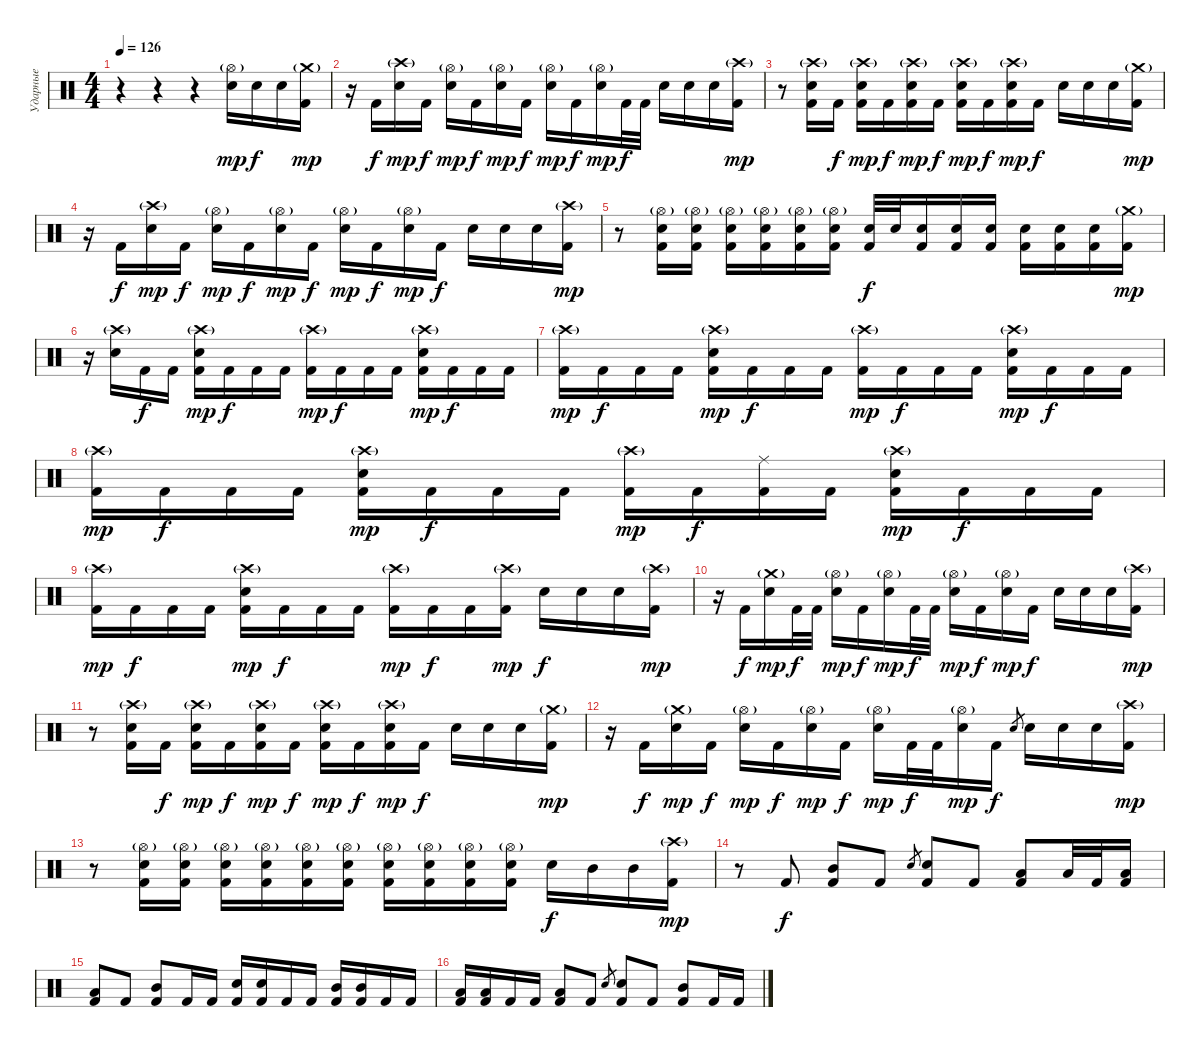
\track ("Ударные" "Ударные") {instrument percussion}
\staff {score}
\articulation defaults
\ts (4 4)
\tempo 126
\clef neutral
\ks c
r.4{dy mp} r.4 r.4 ("Hi-Hat (open)"{g} "Electric Snare (hit)").16 "Electric Snare (hit)".16{dy f} "Electric Snare (hit)".16 ("Crash medium (hit)"{g} "Kick (hit) 2").16{dy mp} |
r.16 "Kick (hit) 2".16{dy f} ("Crash high (hit)"{g} "Electric Snare (hit)").16{dy mp} "Kick (hit) 2".16{dy f} ("Hi-Hat (open)"{g} "Electric Snare (hit)").16{dy mp} "Kick (hit) 2".16{dy f} ("Hi-Hat (open)"{g} "Electric Snare (hit)").16{dy mp} "Kick (hit) 2".16{dy f} ("Hi-Hat (open)"{g} "Electric Snare (hit)").16{dy mp} "Kick (hit) 2".16{dy f} ("Hi-Hat (open)"{g} "Electric Snare (hit)").16{dy mp} "Kick (hit) 2".32{dy f} "Kick (hit) 2".32 "Electric Snare (hit)".16 "Electric Snare (hit)".16 "Electric Snare (hit)".16 ("Crash high (hit)"{g} "Kick (hit) 2").16{dy mp} |
r.8 ("Crash high (hit)"{g} "Electric Snare (hit)" "Kick (hit) 2").16 "Kick (hit) 2".16{dy f} ("Crash high (hit)"{g} "Electric Snare (hit)" "Kick (hit) 2").16{dy mp} "Kick (hit) 2".16{dy f} ("Crash high (hit)"{g} "Electric Snare (hit)" "Kick (hit) 2").16{dy mp} "Kick (hit) 2".16{dy f} ("Crash high (hit)"{g} "Electric Snare (hit)" "Kick (hit) 2").16{dy mp} "Kick (hit) 2".16{dy f} ("Crash high (hit)"{g} "Electric Snare (hit)" "Kick (hit) 2").16{dy mp} "Kick (hit) 2".16{dy f} "Electric Snare (hit)".16 "Electric Snare (hit)".16 "Electric Snare (hit)".16 ("Crash medium (hit)"{g} "Kick (hit) 2").16{dy mp} |
r.16 "Kick (hit) 2".16{dy f} ("Crash high (hit)"{g} "Electric Snare (hit)").16{dy mp} "Kick (hit) 2".16{dy f} ("Hi-Hat (open)"{g} "Electric Snare (hit)").16{dy mp} "Kick (hit) 2".16{dy f} ("Hi-Hat (open)"{g} "Electric Snare (hit)").16{dy mp} "Kick (hit) 2".16{dy f} ("Hi-Hat (open)"{g} "Electric Snare (hit)").16{dy mp} "Kick (hit) 2".16{dy f} ("Hi-Hat (open)"{g} "Electric Snare (hit)").16{dy mp} "Kick (hit) 2".16{dy f} "Electric Snare (hit)".16 "Electric Snare (hit)".16 "Electric Snare (hit)".16 ("Crash high (hit)"{g} "Kick (hit) 2").16{dy mp} |
r.8 ("Hi-Hat (open)"{g} "Electric Snare (hit)" "Kick (hit) 2").16 ("Hi-Hat (open)"{g} "Electric Snare (hit)" "Kick (hit) 2").16 ("Hi-Hat (open)"{g} "Electric Snare (hit)" "Kick (hit) 2").16 ("Hi-Hat (open)"{g} "Electric Snare (hit)" "Kick (hit) 2").16 ("Hi-Hat (open)"{g} "Electric Snare (hit)" "Kick (hit) 2").16 ("Hi-Hat (open)"{g} "Electric Snare (hit)" "Kick (hit) 2").16 ("Electric Snare (hit)" "Kick (hit) 2").32{dy f} "Electric Snare (hit)".32 ("Electric Snare (hit)" "Kick (hit) 2").16 ("Electric Snare (hit)" "Kick (hit) 2").16 ("Electric Snare (hit)" "Kick (hit) 2").16 ("Electric Snare (hit)" "Kick (hit) 2").16 ("Electric Snare (hit)" "Kick (hit) 2").16 ("Electric Snare (hit)" "Kick (hit) 2").16 ("Crash medium (hit)"{g} "Kick (hit) 2").16{dy mp} |
r.16 ("Crash high (hit)"{g} "Electric Snare (hit)").16 "Kick (hit) 2".16{dy f} "Kick (hit) 2".16 ("Crash high (hit)"{g} "Electric Snare (hit)" "Kick (hit) 2").16{dy mp} "Kick (hit) 2".16{dy f} "Kick (hit) 2".16 "Kick (hit) 2".16 ("Crash high (hit)"{g} "Kick (hit) 2").16{dy mp} "Kick (hit) 2".16{dy f} "Kick (hit) 2".16 "Kick (hit) 2".16 ("Crash high (hit)"{g} "Electric Snare (hit)" "Kick (hit) 2").16{dy mp} "Kick (hit) 2".16{dy f} "Kick (hit) 2".16 "Kick (hit) 2".16 |
("Crash high (hit)"{g} "Kick (hit) 2").16{dy mp} "Kick (hit) 2".16{dy f} "Kick (hit) 2".16 "Kick (hit) 2".16 ("Crash high (hit)"{g} "Electric Snare (hit)" "Kick (hit) 2").16{dy mp} "Kick (hit) 2".16{dy f} "Kick (hit) 2".16 "Kick (hit) 2".16 ("Crash high (hit)"{g} "Kick (hit) 2").16{dy mp} "Kick (hit) 2".16{dy f} "Kick (hit) 2".16 "Kick (hit) 2".16 ("Crash high (hit)"{g} "Electric Snare (hit)" "Kick (hit) 2").16{dy mp} "Kick (hit) 2".16{dy f} "Kick (hit) 2".16 "Kick (hit) 2".16 |
("Crash high (hit)"{g} "Kick (hit) 2").16{dy mp} "Kick (hit) 2".16{dy f} "Kick (hit) 2".16 "Kick (hit) 2".16 ("Crash high (hit)"{g} "Electric Snare (hit)" "Kick (hit) 2").16{dy mp} "Kick (hit) 2".16{dy f} "Kick (hit) 2".16 "Kick (hit) 2".16 ("Crash high (hit)"{g} "Kick (hit) 2").16{dy mp} "Kick (hit) 2".16{dy f} ("Ride (middle)" "Kick (hit) 2").16 "Kick (hit) 2".16 ("Crash high (hit)"{g} "Electric Snare (hit)" "Kick (hit) 2").16{dy mp} "Kick (hit) 2".16{dy f} "Kick (hit) 2".16 "Kick (hit) 2".16 |
("Crash high (hit)"{g} "Kick (hit) 2").16{dy mp} "Kick (hit) 2".16{dy f} "Kick (hit) 2".16 "Kick (hit) 2".16 ("Crash high (hit)"{g} "Electric Snare (hit)" "Kick (hit) 2").16{dy mp} "Kick (hit) 2".16{dy f} "Kick (hit) 2".16 "Kick (hit) 2".16 ("Crash high (hit)"{g} "Kick (hit) 2").16{dy mp} "Kick (hit) 2".16{dy f} "Kick (hit) 2".16 ("Crash high (hit)"{g} "Kick (hit) 2").16{dy mp} "Electric Snare (hit)".16{dy f} "Electric Snare (hit)".16 "Electric Snare (hit)".16 ("Crash high (hit)"{g} "Kick (hit) 2").16{dy mp} |
r.16 "Kick (hit) 2".16{dy f} ("Crash medium (hit)"{g} "Electric Snare (hit)").16{dy mp} "Kick (hit) 2".32{dy f} "Kick (hit) 2".32 ("Hi-Hat (open)"{g} "Electric Snare (hit)").16{dy mp} "Kick (hit) 2".16{dy f} ("Hi-Hat (open)"{g} "Electric Snare (hit)").16{dy mp} "Kick (hit) 2".32{dy f} "Kick (hit) 2".32 ("Hi-Hat (open)"{g} "Electric Snare (hit)").16{dy mp} "Kick (hit) 2".16{dy f} ("Hi-Hat (open)"{g} "Electric Snare (hit)").16{dy mp} "Kick (hit) 2".16{dy f} "Electric Snare (hit)".16 "Electric Snare (hit)".16 "Electric Snare (hit)".16 ("Crash high (hit)"{g} "Kick (hit) 2").16{dy mp} |
r.8 ("Crash high (hit)"{g} "Electric Snare (hit)" "Kick (hit) 2").16 "Kick (hit) 2".16{dy f} ("Crash high (hit)"{g} "Electric Snare (hit)" "Kick (hit) 2").16{dy mp} "Kick (hit) 2".16{dy f} ("Crash high (hit)"{g} "Electric Snare (hit)" "Kick (hit) 2").16{dy mp} "Kick (hit) 2".16{dy f} ("Crash high (hit)"{g} "Electric Snare (hit)" "Kick (hit) 2").16{dy mp} "Kick (hit) 2".16{dy f} ("Crash high (hit)"{g} "Electric Snare (hit)" "Kick (hit) 2").16{dy mp} "Kick (hit) 2".16{dy f} "Electric Snare (hit)".16 "Electric Snare (hit)".16 "Electric Snare (hit)".16 ("Crash medium (hit)"{g} "Kick (hit) 2").16{dy mp} |
r.16 "Kick (hit) 2".16{dy f} ("Crash medium (hit)"{g} "Electric Snare (hit)").16{dy mp} "Kick (hit) 2".16{dy f} ("Hi-Hat (open)"{g} "Electric Snare (hit)").16{dy mp} "Kick (hit) 2".16{dy f} ("Hi-Hat (open)"{g} "Electric Snare (hit)").16{dy mp} "Kick (hit) 2".16{dy f} ("Hi-Hat (open)"{g} "Electric Snare (hit)").16{dy mp} "Kick (hit) 2".32{dy f} "Kick (hit) 2".32 ("Hi-Hat (open)"{g} "Electric Snare (hit)").16{dy mp} "Kick (hit) 2".16{dy f} "Electric Snare (hit)".8{gr} "Electric Snare (hit)".16 "Electric Snare (hit)".16 "Electric Snare (hit)".16 ("Crash high (hit)"{g} "Kick (hit) 2").16{dy mp} |
r.8 ("Hi-Hat (open)"{g} "Electric Snare (hit)" "Kick (hit) 2").16 ("Hi-Hat (open)"{g} "Electric Snare (hit)" "Kick (hit) 2").16 ("Hi-Hat (open)"{g} "Electric Snare (hit)" "Kick (hit) 2").16 ("Hi-Hat (open)"{g} "Electric Snare (hit)" "Kick (hit) 2").16 ("Hi-Hat (open)"{g} "Electric Snare (hit)" "Kick (hit) 2").16 ("Hi-Hat (open)"{g} "Electric Snare (hit)" "Kick (hit) 2").16 ("Hi-Hat (open)"{g} "Electric Snare (hit)" "Kick (hit) 2").16 ("Hi-Hat (open)"{g} "Electric Snare (hit)" "Kick (hit) 2").16 ("Hi-Hat (open)"{g} "Electric Snare (hit)" "Kick (hit) 2").16 ("Hi-Hat (open)"{g} "Electric Snare (hit)" "Kick (hit) 2").16 "Electric Snare (hit)".16{dy f} "Mid Tom (hit)".16 "Mid Tom (hit)".16 ("Crash high (hit)"{g} "Kick (hit) 2").16{dy mp} |
r.8 "Kick (hit) 2".8{dy f} ("Mid Tom (hit)" "Kick (hit) 2").8 "Kick (hit) 2".8 "Electric Snare (hit)".8{gr} ("Electric Snare (hit)" "Kick (hit) 2").8 "Kick (hit) 2".8 ("Low Tom (hit)" "Kick (hit) 2").8 "Low Tom (hit)".32 "Kick (hit) 2".32 ("Low Tom (hit)" "Kick (hit) 2").16 |
("Low Tom (hit)" "Kick (hit) 2").8 "Kick (hit) 2".8 ("Mid Tom (hit)" "Kick (hit) 2").8 "Kick (hit) 2".16 "Kick (hit) 2".16 ("Electric Snare (hit)" "Kick (hit) 2").16 ("Electric Snare (hit)" "Kick (hit) 2").16 "Kick (hit) 2".16 "Kick (hit) 2".16 ("Mid Tom (hit)" "Kick (hit) 2").16 ("Mid Tom (hit)" "Kick (hit) 2").16 "Kick (hit) 2".16 "Kick (hit) 2".16 |
("Low Tom (hit)" "Kick (hit) 2").16 ("Low Tom (hit)" "Kick (hit) 2").16 "Kick (hit) 2".16 "Kick (hit) 2".16 ("Low Tom (hit)" "Kick (hit) 2").8 "Kick (hit) 2".8 "Electric Snare (hit)".8{gr} ("Electric Snare (hit)" "Kick (hit) 2").8 "Kick (hit) 2".8 ("Mid Tom (hit)" "Kick (hit) 2").8 "Kick (hit) 2".16 "Kick (hit) 2".16
